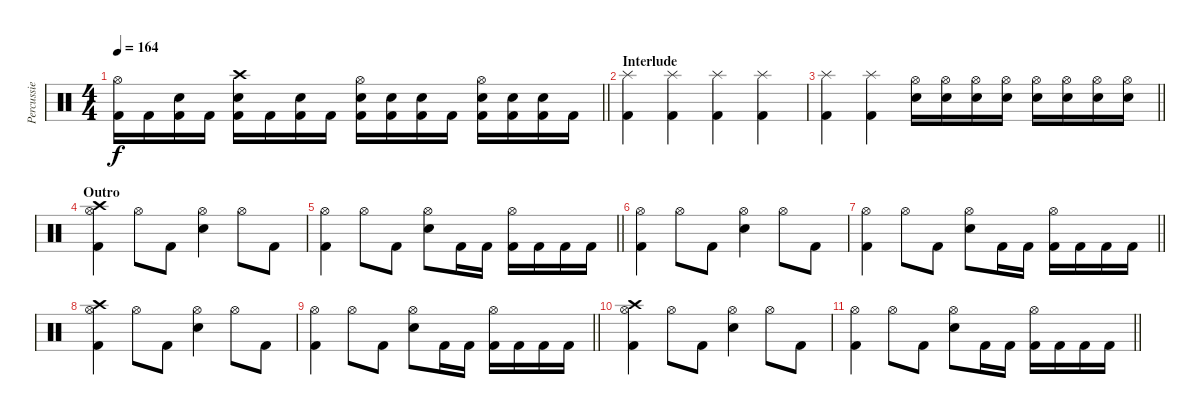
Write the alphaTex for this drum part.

\track ("Percussie" "Percussie") {instrument percussion}
\staff {score}
\articulation defaults
\ts (4 4)
\tempo 164
\clef neutral
\barLineRight lightlight
\ks c
("Hi-Hat (open)" "Kick (hit) 2").16{dy f} "Kick (hit) 2".16 ("Electric Snare (hit)" "Kick (hit) 2").16 "Kick (hit) 2".16 ("Crash high (hit)" "Electric Snare (hit)" "Kick (hit) 2").16 "Kick (hit) 2".16 ("Electric Snare (hit)" "Kick (hit) 2").16 "Kick (hit) 2".16 ("Hi-Hat (open)" "Electric Snare (hit)" "Kick (hit) 2").16 ("Electric Snare (hit)" "Kick (hit) 2").16 ("Electric Snare (hit)" "Kick (hit) 2").16 "Kick (hit) 2".16 ("Hi-Hat (open)" "Electric Snare (hit)" "Kick (hit) 2").16 ("Electric Snare (hit)" "Kick (hit) 2").16 ("Electric Snare (hit)" "Kick (hit) 2").16 "Kick (hit) 2".16 |
\section ("" "Interlude")
("Splash (hit)" "Kick (hit) 2").4 ("Splash (hit)" "Kick (hit) 2").4 ("Splash (hit)" "Kick (hit) 2").4 ("Splash (hit)" "Kick (hit) 2").4 |
\barLineRight lightlight
("Splash (hit)" "Kick (hit) 2").4 ("Splash (hit)" "Kick (hit) 2").4 ("Hi-Hat (open)" "Electric Snare (hit)").16 ("Hi-Hat (open)" "Electric Snare (hit)").16 ("Hi-Hat (open)" "Electric Snare (hit)").16 ("Hi-Hat (open)" "Electric Snare (hit)").16 ("Hi-Hat (open)" "Electric Snare (hit)").16 ("Hi-Hat (open)" "Electric Snare (hit)").16 ("Hi-Hat (open)" "Electric Snare (hit)").16 ("Hi-Hat (open)" "Electric Snare (hit)").16 |
\section ("" "Outro")
("Hi-Hat (open)" "Crash high (hit)" "Kick (hit) 2").4 "Hi-Hat (open)".8 "Kick (hit) 2".8 ("Hi-Hat (open)" "Electric Snare (hit)").4 "Hi-Hat (open)".8 "Kick (hit) 2".8 |
\barLineRight lightlight
("Hi-Hat (open)" "Kick (hit) 2").4 "Hi-Hat (open)".8 "Kick (hit) 2".8 ("Hi-Hat (open)" "Electric Snare (hit)").8 "Kick (hit) 2".16 "Kick (hit) 2".16 ("Hi-Hat (open)" "Kick (hit) 2").16 "Kick (hit) 2".16 "Kick (hit) 2".16 "Kick (hit) 2".16 |
("Hi-Hat (open)" "Kick (hit) 2").4 "Hi-Hat (open)".8 "Kick (hit) 2".8 ("Hi-Hat (open)" "Electric Snare (hit)").4 "Hi-Hat (open)".8 "Kick (hit) 2".8 |
\barLineRight lightlight
("Hi-Hat (open)" "Kick (hit) 2").4 "Hi-Hat (open)".8 "Kick (hit) 2".8 ("Hi-Hat (open)" "Electric Snare (hit)").8 "Kick (hit) 2".16 "Kick (hit) 2".16 ("Hi-Hat (open)" "Kick (hit) 2").16 "Kick (hit) 2".16 "Kick (hit) 2".16 "Kick (hit) 2".16 |
("Hi-Hat (open)" "Crash high (hit)" "Kick (hit) 2").4 "Hi-Hat (open)".8 "Kick (hit) 2".8 ("Hi-Hat (open)" "Electric Snare (hit)").4 "Hi-Hat (open)".8 "Kick (hit) 2".8 |
\barLineRight lightlight
("Hi-Hat (open)" "Kick (hit) 2").4 "Hi-Hat (open)".8 "Kick (hit) 2".8 ("Hi-Hat (open)" "Electric Snare (hit)").8 "Kick (hit) 2".16 "Kick (hit) 2".16 ("Hi-Hat (open)" "Kick (hit) 2").16 "Kick (hit) 2".16 "Kick (hit) 2".16 "Kick (hit) 2".16 |
("Hi-Hat (open)" "Crash high (hit)" "Kick (hit) 2").4 "Hi-Hat (open)".8 "Kick (hit) 2".8 ("Hi-Hat (open)" "Electric Snare (hit)").4 "Hi-Hat (open)".8 "Kick (hit) 2".8 |
\barLineRight lightlight
("Hi-Hat (open)" "Kick (hit) 2").4 "Hi-Hat (open)".8 "Kick (hit) 2".8 ("Hi-Hat (open)" "Electric Snare (hit)").8 "Kick (hit) 2".16 "Kick (hit) 2".16 ("Hi-Hat (open)" "Kick (hit) 2").16 "Kick (hit) 2".16 "Kick (hit) 2".16 "Kick (hit) 2".16
